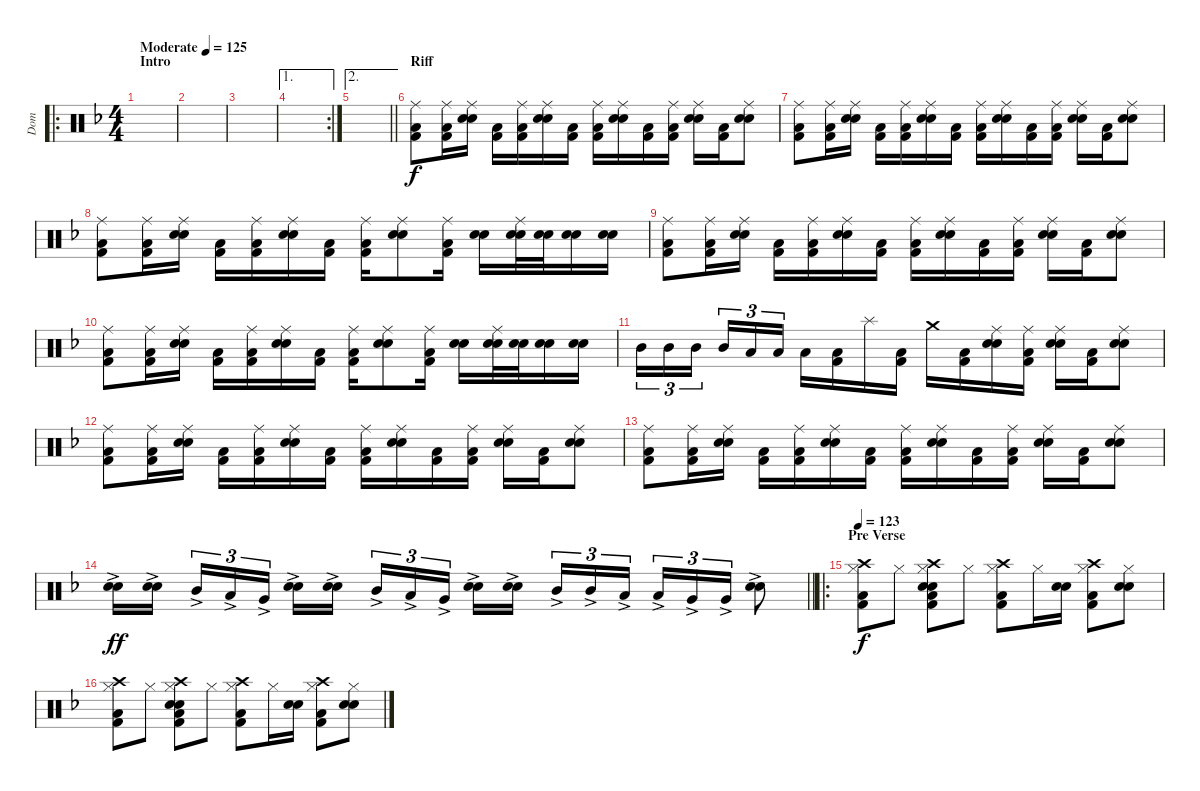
\track ("Dom" "Dom") {instrument percussion}
\staff {score}
\articulation defaults
\ro
\ts (4 4)
\section ("" "Intro")
\tempo (125 "Moderate")
\tempo 131
\tempo (125 "Moderate")
\clef neutral
\ks f
|
|
|
\ae 1
\rc 2
|
\ae 2
\barLineRight lightlight
|
\section ("" "Riff")
("Ride (middle)" "Low Floor Tom (hit)" "Kick (hit) 2").8 ("Ride (middle)" "Low Floor Tom (hit)" "Kick (hit) 2").16 ("Ride (middle)" "Electric Snare (hit)" "Snare (hit) 2").16 ("Low Floor Tom (hit)" "Kick (hit) 2").16 ("Ride (middle)" "Low Floor Tom (hit)" "Kick (hit) 2").16 ("Ride (middle)" "Electric Snare (hit)" "Snare (hit) 2").16 ("Low Floor Tom (hit)" "Kick (hit) 2").16 ("Ride (middle)" "Low Floor Tom (hit)" "Kick (hit) 2").16 ("Ride (middle)" "Electric Snare (hit)" "Snare (hit) 2").16 ("Low Floor Tom (hit)" "Kick (hit) 2").16 ("Ride (middle)" "Low Floor Tom (hit)" "Kick (hit) 2").16 ("Ride (middle)" "Electric Snare (hit)" "Snare (hit) 2").16 ("Low Floor Tom (hit)" "Kick (hit) 2").16 ("Ride (middle)" "Electric Snare (hit)" "Snare (hit) 2").8 |
("Ride (middle)" "Low Floor Tom (hit)" "Kick (hit) 2").8 ("Ride (middle)" "Low Floor Tom (hit)" "Kick (hit) 2").16 ("Ride (middle)" "Electric Snare (hit)" "Snare (hit) 2").16 ("Low Floor Tom (hit)" "Kick (hit) 2").16 ("Ride (middle)" "Low Floor Tom (hit)" "Kick (hit) 2").16 ("Ride (middle)" "Electric Snare (hit)" "Snare (hit) 2").16 ("Low Floor Tom (hit)" "Kick (hit) 2").16 ("Ride (middle)" "Low Floor Tom (hit)" "Kick (hit) 2").16 ("Ride (middle)" "Electric Snare (hit)" "Snare (hit) 2").16 ("Low Floor Tom (hit)" "Kick (hit) 2").16 ("Ride (middle)" "Low Floor Tom (hit)" "Kick (hit) 2").16 ("Ride (middle)" "Electric Snare (hit)" "Snare (hit) 2").16 ("Low Floor Tom (hit)" "Kick (hit) 2").16 ("Ride (middle)" "Electric Snare (hit)" "Snare (hit) 2").8 |
("Ride (middle)" "Low Floor Tom (hit)" "Kick (hit) 2").8 ("Ride (middle)" "Low Floor Tom (hit)" "Kick (hit) 2").16 ("Ride (middle)" "Electric Snare (hit)" "Snare (hit) 2").16 ("Low Floor Tom (hit)" "Kick (hit) 2").16 ("Ride (middle)" "Low Floor Tom (hit)" "Kick (hit) 2").16 ("Ride (middle)" "Electric Snare (hit)" "Snare (hit) 2").16 ("Low Floor Tom (hit)" "Kick (hit) 2").16 ("Ride (middle)" "Low Floor Tom (hit)" "Kick (hit) 2").16 ("Ride (middle)" "Electric Snare (hit)" "Snare (hit) 2").8 ("Ride (middle)" "Low Floor Tom (hit)" "Kick (hit) 2").16 ("Electric Snare (hit)" "Snare (hit) 2").16 ("Ride (middle)" "Electric Snare (hit)" "Snare (hit) 2").32 ("Electric Snare (hit)" "Snare (hit) 2").32 ("Electric Snare (hit)" "Snare (hit) 2").16 ("Electric Snare (hit)" "Snare (hit) 2").16 |
("Ride (middle)" "Low Floor Tom (hit)" "Kick (hit) 2").8 ("Ride (middle)" "Low Floor Tom (hit)" "Kick (hit) 2").16 ("Ride (middle)" "Electric Snare (hit)" "Snare (hit) 2").16 ("Low Floor Tom (hit)" "Kick (hit) 2").16 ("Ride (middle)" "Low Floor Tom (hit)" "Kick (hit) 2").16 ("Ride (middle)" "Electric Snare (hit)" "Snare (hit) 2").16 ("Low Floor Tom (hit)" "Kick (hit) 2").16 ("Ride (middle)" "Low Floor Tom (hit)" "Kick (hit) 2").16 ("Ride (middle)" "Electric Snare (hit)" "Snare (hit) 2").16 ("Low Floor Tom (hit)" "Kick (hit) 2").16 ("Ride (middle)" "Low Floor Tom (hit)" "Kick (hit) 2").16 ("Ride (middle)" "Electric Snare (hit)" "Snare (hit) 2").16 ("Low Floor Tom (hit)" "Kick (hit) 2").16 ("Ride (middle)" "Electric Snare (hit)" "Snare (hit) 2").8 |
("Ride (middle)" "Low Floor Tom (hit)" "Kick (hit) 2").8 ("Ride (middle)" "Low Floor Tom (hit)" "Kick (hit) 2").16 ("Ride (middle)" "Electric Snare (hit)" "Snare (hit) 2").16 ("Low Floor Tom (hit)" "Kick (hit) 2").16 ("Ride (middle)" "Low Floor Tom (hit)" "Kick (hit) 2").16 ("Ride (middle)" "Electric Snare (hit)" "Snare (hit) 2").16 ("Low Floor Tom (hit)" "Kick (hit) 2").16 ("Ride (middle)" "Low Floor Tom (hit)" "Kick (hit) 2").16 ("Ride (middle)" "Electric Snare (hit)" "Snare (hit) 2").8 ("Ride (middle)" "Low Floor Tom (hit)" "Kick (hit) 2").16 ("Electric Snare (hit)" "Snare (hit) 2").16 ("Ride (middle)" "Electric Snare (hit)" "Snare (hit) 2").32 ("Electric Snare (hit)" "Snare (hit) 2").32 ("Electric Snare (hit)" "Snare (hit) 2").16 ("Electric Snare (hit)" "Snare (hit) 2").16 |
"Mid Tom (hit)".16{tu (3 2)} "Mid Tom (hit)".16{tu (3 2)} "Mid Tom (hit)".16{tu (3 2) beam splitsecondary} "Mid Tom (hit)".16{tu (3 2)} "Low Tom (hit)".16{tu (3 2)} "Low Tom (hit)".16{tu (3 2)} "Low Tom (hit)".16 ("Low Floor Tom (hit)" "Kick (hit) 2").16 "Splash (hit)".16 ("Low Floor Tom (hit)" "Kick (hit) 2").16 "Crash medium (hit)".16 ("Low Floor Tom (hit)" "Kick (hit) 2").16 ("Ride (middle)" "Electric Snare (hit)" "Snare (hit) 2").16 ("Ride (middle)" "Low Floor Tom (hit)" "Kick (hit) 2").16 ("Ride (middle)" "Electric Snare (hit)" "Snare (hit) 2").16 ("Low Floor Tom (hit)" "Kick (hit) 2").16 ("Ride (middle)" "Electric Snare (hit)" "Snare (hit) 2").8 |
("Ride (middle)" "Low Floor Tom (hit)" "Kick (hit) 2").8 ("Ride (middle)" "Low Floor Tom (hit)" "Kick (hit) 2").16 ("Ride (middle)" "Electric Snare (hit)" "Snare (hit) 2").16 ("Low Floor Tom (hit)" "Kick (hit) 2").16 ("Ride (middle)" "Low Floor Tom (hit)" "Kick (hit) 2").16 ("Ride (middle)" "Electric Snare (hit)" "Snare (hit) 2").16 ("Low Floor Tom (hit)" "Kick (hit) 2").16 ("Ride (middle)" "Low Floor Tom (hit)" "Kick (hit) 2").16 ("Ride (middle)" "Electric Snare (hit)" "Snare (hit) 2").16 ("Low Floor Tom (hit)" "Kick (hit) 2").16 ("Ride (middle)" "Low Floor Tom (hit)" "Kick (hit) 2").16 ("Ride (middle)" "Electric Snare (hit)" "Snare (hit) 2").16 ("Low Floor Tom (hit)" "Kick (hit) 2").16 ("Ride (middle)" "Electric Snare (hit)" "Snare (hit) 2").8 |
("Ride (middle)" "Low Floor Tom (hit)" "Kick (hit) 2").8 ("Ride (middle)" "Low Floor Tom (hit)" "Kick (hit) 2").16 ("Ride (middle)" "Electric Snare (hit)" "Snare (hit) 2").16 ("Low Floor Tom (hit)" "Kick (hit) 2").16 ("Ride (middle)" "Low Floor Tom (hit)" "Kick (hit) 2").16 ("Ride (middle)" "Electric Snare (hit)" "Snare (hit) 2").16 ("Low Floor Tom (hit)" "Kick (hit) 2").16 ("Ride (middle)" "Low Floor Tom (hit)" "Kick (hit) 2").16 ("Ride (middle)" "Electric Snare (hit)" "Snare (hit) 2").16 ("Low Floor Tom (hit)" "Kick (hit) 2").16 ("Ride (middle)" "Low Floor Tom (hit)" "Kick (hit) 2").16 ("Ride (middle)" "Electric Snare (hit)" "Snare (hit) 2").16 ("Low Floor Tom (hit)" "Kick (hit) 2").16 ("Ride (middle)" "Electric Snare (hit)" "Snare (hit) 2").8 |
\barLineRight lightlight
("Snare (hit) 2" "Electric Snare (hit)"{ac}).16{dy ff} ("Snare (hit) 2" "Electric Snare (hit)"{ac}).16{beam splitsecondary} "Mid Tom (hit)"{ac}.16{tu (3 2)} "Low Tom (hit)"{ac}.16{tu (3 2)} "Very Low Tom (hit)"{ac}.16{tu (3 2)} ("Snare (hit) 2" "Electric Snare (hit)"{ac}).16 ("Snare (hit) 2" "Electric Snare (hit)"{ac}).16{beam splitsecondary} "Mid Tom (hit)"{ac}.16{tu (3 2)} "Low Tom (hit)"{ac}.16{tu (3 2)} "Very Low Tom (hit)"{ac}.16{tu (3 2)} ("Snare (hit) 2" "Electric Snare (hit)"{ac}).16 ("Snare (hit) 2" "Electric Snare (hit)"{ac}).16{beam splitsecondary} "Mid Tom (hit)"{ac}.16{tu (3 2)} "Mid Tom (hit)"{ac}.16{tu (3 2)} "Low Tom (hit)"{ac}.16{tu (3 2)} "Low Tom (hit)"{ac}.16{tu (3 2)} "Very Low Tom (hit)"{ac}.16{tu (3 2)} "Very Low Tom (hit)"{ac}.16{tu (3 2)} ("Electric Snare (hit)" "Snare (hit) 2"{ac}).8 |
\ro
\section ("" "Pre Verse")
\tempo 123
("Crash high (hit)" "Hi-Hat (closed)" "Low Floor Tom (hit)" "Kick (hit) 2").8{dy f} "Hi-Hat (closed)".8 ("Crash high (hit)" "Hi-Hat (closed)" "Snare (hit) 2" "Electric Snare (hit)" "Low Floor Tom (hit)" "Kick (hit) 2").8 "Hi-Hat (closed)".8 ("Crash high (hit)" "Hi-Hat (closed)" "Low Floor Tom (hit)" "Kick (hit) 2").8 "Hi-Hat (closed)".16 ("Snare (hit) 2" "Electric Snare (hit)").16 ("Crash high (hit)" "Hi-Hat (closed)" "Low Floor Tom (hit)" "Kick (hit) 2").8 ("Hi-Hat (closed)" "Snare (hit) 2" "Electric Snare (hit)").8 |
("Crash high (hit)" "Hi-Hat (closed)" "Low Floor Tom (hit)" "Kick (hit) 2").8 "Hi-Hat (closed)".8 ("Crash high (hit)" "Hi-Hat (closed)" "Snare (hit) 2" "Electric Snare (hit)" "Low Floor Tom (hit)" "Kick (hit) 2").8 "Hi-Hat (closed)".8 ("Crash high (hit)" "Hi-Hat (closed)" "Low Floor Tom (hit)" "Kick (hit) 2").8 "Hi-Hat (closed)".16 ("Snare (hit) 2" "Electric Snare (hit)").16 ("Crash high (hit)" "Hi-Hat (closed)" "Low Floor Tom (hit)" "Kick (hit) 2").8 ("Hi-Hat (closed)" "Snare (hit) 2" "Electric Snare (hit)").8
